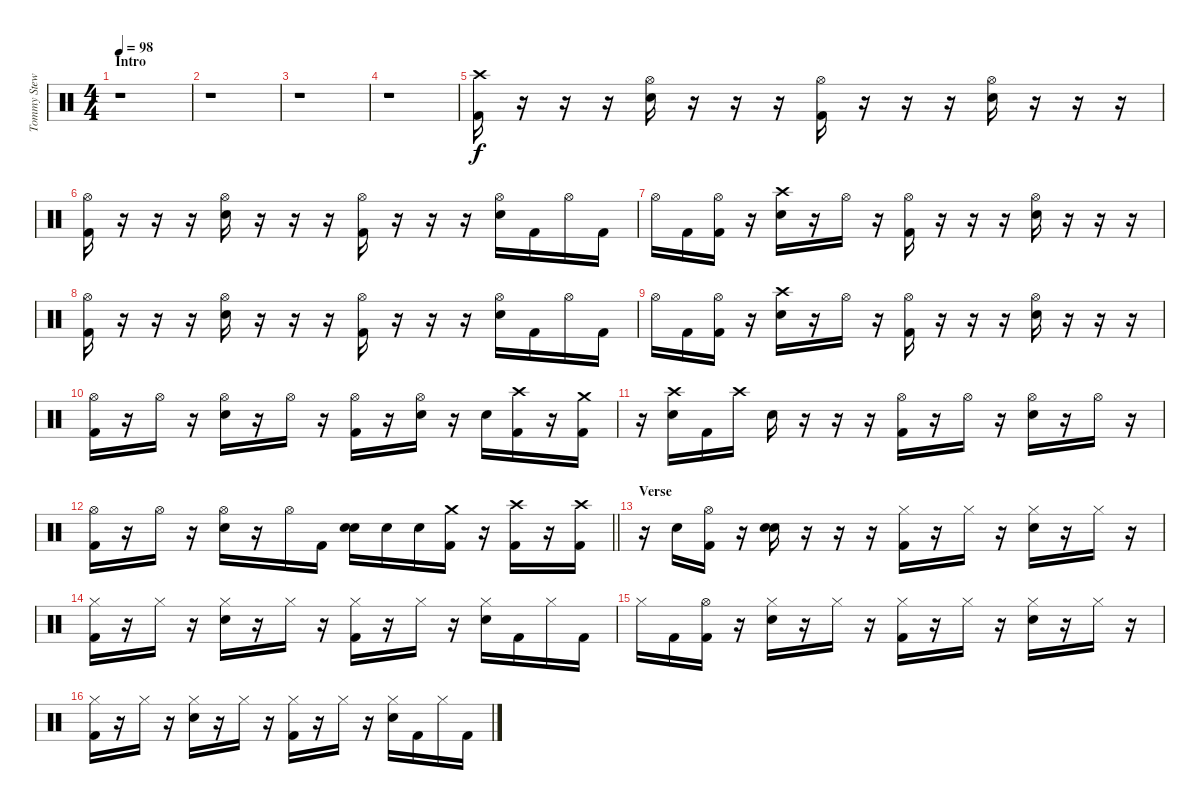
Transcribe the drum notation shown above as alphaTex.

\track ("Tommy Stewart - Drums" "Tommy Stew") {instrument percussion}
\staff {score}
\articulation defaults
\ts (4 4)
\section ("" "Intro")
\tempo 98
\clef neutral
\ks c
r.1{dy f} |
r.1 |
r.1 |
r.1 |
("Crash high (hit)" "Kick (hit) 2").16 r.16 r.16 r.16 ("Hi-Hat (open)" "Snare (hit) 2").16 r.16 r.16 r.16 ("Hi-Hat (open)" "Kick (hit) 2").16 r.16 r.16 r.16 ("Hi-Hat (open)" "Snare (hit) 2").16 r.16 r.16 r.16 |
("Hi-Hat (open)" "Kick (hit) 2").16 r.16 r.16 r.16 ("Hi-Hat (open)" "Snare (hit) 2").16 r.16 r.16 r.16 ("Hi-Hat (open)" "Kick (hit) 2").16 r.16 r.16 r.16 ("Hi-Hat (open)" "Snare (hit) 2").16 "Kick (hit) 2".16 "Hi-Hat (open)".16 "Kick (hit) 2".16 |
"Hi-Hat (open)".16 "Kick (hit) 2".16 ("Hi-Hat (open)" "Kick (hit) 2").16 r.16 ("Crash high (hit)" "Snare (hit) 2").16 r.16 "Hi-Hat (open)".16 r.16 ("Hi-Hat (open)" "Kick (hit) 2").16 r.16 r.16 r.16 ("Hi-Hat (open)" "Snare (hit) 2").16 r.16 r.16 r.16 |
("Hi-Hat (open)" "Kick (hit) 2").16 r.16 r.16 r.16 ("Hi-Hat (open)" "Snare (hit) 2").16 r.16 r.16 r.16 ("Hi-Hat (open)" "Kick (hit) 2").16 r.16 r.16 r.16 ("Hi-Hat (open)" "Snare (hit) 2").16 "Kick (hit) 2".16 "Hi-Hat (open)".16 "Kick (hit) 2".16 |
"Hi-Hat (open)".16 "Kick (hit) 2".16 ("Hi-Hat (open)" "Kick (hit) 2").16 r.16 ("Crash high (hit)" "Snare (hit) 2").16 r.16 "Hi-Hat (open)".16 r.16 ("Hi-Hat (open)" "Kick (hit) 2").16 r.16 r.16 r.16 ("Hi-Hat (open)" "Snare (hit) 2").16 r.16 r.16 r.16 |
("Hi-Hat (open)" "Kick (hit) 2").16 r.16 "Hi-Hat (open)".16 r.16 ("Hi-Hat (open)" "Snare (hit) 2").16 r.16 "Hi-Hat (open)".16 r.16 ("Hi-Hat (open)" "Kick (hit) 2").16 r.16 ("Hi-Hat (open)" "Snare (hit) 2").16 r.16 "Snare (hit) 2".16 ("Crash high (hit)" "Kick (hit) 2").16 r.16 ("Crash medium (hit)" "Kick (hit) 2").16 |
r.16 ("Crash high (hit)" "Snare (hit) 2").16 "Kick (hit) 2".16 "Crash high (hit)".16 "Snare (hit) 2".16 r.16 r.16 r.16 ("Hi-Hat (open)" "Kick (hit) 2").16 r.16 "Hi-Hat (open)".16 r.16 ("Hi-Hat (open)" "Snare (hit) 2").16 r.16 "Hi-Hat (open)".16 r.16 |
\barLineRight lightlight
("Hi-Hat (open)" "Kick (hit) 2").16 r.16 "Hi-Hat (open)".16 r.16 ("Hi-Hat (open)" "Snare (hit) 2").16 r.16 "Hi-Hat (open)".16 "Kick (hit) 2".16 ("Snare (hit) 2" "Snare (hit) 2").16 "Snare (hit) 2".16 "Snare (hit) 2".16 ("Crash medium (hit)" "Kick (hit) 2").16 r.16 ("Crash high (hit)" "Kick (hit) 2").16 r.16 ("Crash high (hit)" "Kick (hit) 2").16 |
\section ("" "Verse")
r.16 "Snare (hit) 2".16 ("Hi-Hat (open)" "Kick (hit) 2").16 r.16 ("Snare (hit) 2" "Snare (hit) 2").16 r.16 r.16 r.16 ("Hi-Hat (closed)" "Kick (hit) 2").16 r.16 "Hi-Hat (closed)".16 r.16 ("Hi-Hat (closed)" "Snare (hit) 2").16 r.16 "Hi-Hat (closed)".16 r.16 |
("Hi-Hat (closed)" "Kick (hit) 2").16 r.16 "Hi-Hat (closed)".16 r.16 ("Hi-Hat (closed)" "Snare (hit) 2").16 r.16 "Hi-Hat (closed)".16 r.16 ("Hi-Hat (closed)" "Kick (hit) 2").16 r.16 "Hi-Hat (closed)".16 r.16 ("Hi-Hat (closed)" "Snare (hit) 2").16 "Kick (hit) 2".16 "Hi-Hat (closed)".16 "Kick (hit) 2".16 |
"Hi-Hat (closed)".16 "Kick (hit) 2".16 ("Hi-Hat (open)" "Kick (hit) 2").16 r.16 ("Hi-Hat (closed)" "Snare (hit) 2").16 r.16 "Hi-Hat (closed)".16 r.16 ("Hi-Hat (closed)" "Kick (hit) 2").16 r.16 "Hi-Hat (closed)".16 r.16 ("Hi-Hat (closed)" "Snare (hit) 2").16 r.16 "Hi-Hat (closed)".16 r.16 |
("Hi-Hat (closed)" "Kick (hit) 2").16 r.16 "Hi-Hat (closed)".16 r.16 ("Hi-Hat (closed)" "Snare (hit) 2").16 r.16 "Hi-Hat (closed)".16 r.16 ("Hi-Hat (closed)" "Kick (hit) 2").16 r.16 "Hi-Hat (closed)".16 r.16 ("Hi-Hat (closed)" "Snare (hit) 2").16 "Kick (hit) 2".16 "Hi-Hat (closed)".16 "Kick (hit) 2".16
